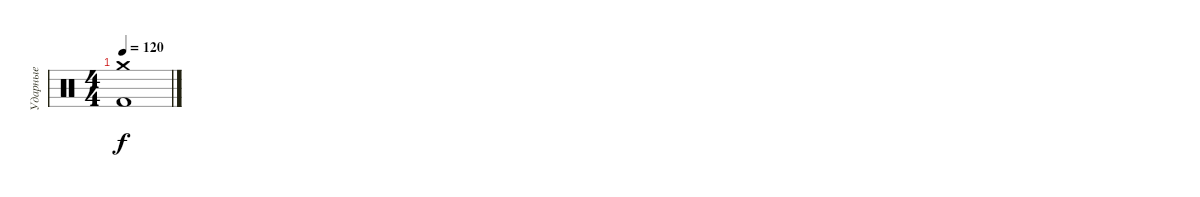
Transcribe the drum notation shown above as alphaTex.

\track ("Ударные" "Ударные") {instrument percussion}
\staff {score}
\articulation defaults
\ts (4 4)
\tempo 120
\clef neutral
\ks c
("Crash medium (hit)" "Kick (hit) 2").1{dy f}
